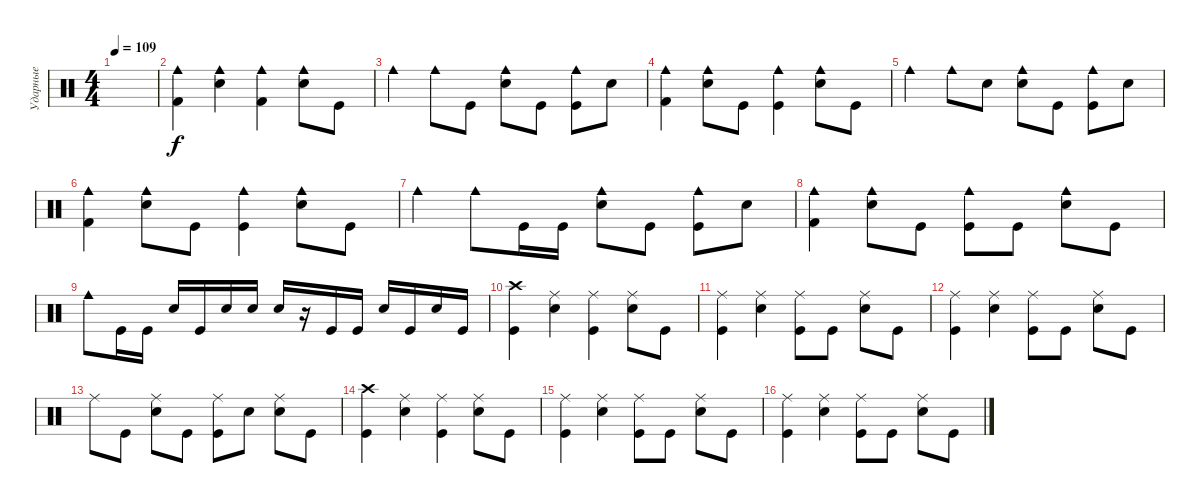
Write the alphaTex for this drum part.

\track ("Ударные" "Ударные") {instrument percussion}
\staff {score}
\articulation defaults
\ts (4 4)
\tempo 109
\clef neutral
\ks c
|
("Kick (hit) 2" "Cowbell medium (hit)").4 ("Snare (hit) 2" "Cowbell medium (hit)").4 ("Kick (hit) 2" "Cowbell medium (hit)").4 ("Snare (hit) 2" "Cowbell medium (hit)").8 "Kick (hit)".8 |
"Cowbell medium (hit)".4 "Cowbell medium (hit)".8 "Kick (hit)".8 ("Snare (hit) 2" "Cowbell medium (hit)").8 "Kick (hit)".8 ("Kick (hit)" "Cowbell medium (hit)").8 "Snare (hit) 2".8 |
("Kick (hit) 2" "Cowbell medium (hit)").4 ("Snare (hit) 2" "Cowbell medium (hit)").8 "Kick (hit)".8 ("Kick (hit)" "Cowbell medium (hit)").4 ("Snare (hit) 2" "Cowbell medium (hit)").8 "Kick (hit)".8 |
"Cowbell medium (hit)".4 "Cowbell medium (hit)".8 "Snare (hit) 2".8 ("Snare (hit) 2" "Cowbell medium (hit)").8 "Kick (hit)".8 ("Kick (hit)" "Cowbell medium (hit)").8 "Snare (hit) 2".8 |
("Kick (hit) 2" "Cowbell medium (hit)").4 ("Snare (hit) 2" "Cowbell medium (hit)").8 "Kick (hit)".8 ("Kick (hit)" "Cowbell medium (hit)").4 ("Snare (hit) 2" "Cowbell medium (hit)").8 "Kick (hit)".8 |
"Cowbell medium (hit)".4 "Cowbell medium (hit)".8 "Kick (hit)".16 "Kick (hit)".16 ("Snare (hit) 2" "Cowbell medium (hit)").8 "Kick (hit)".8 ("Kick (hit)" "Cowbell medium (hit)").8 "Snare (hit) 2".8 |
("Kick (hit) 2" "Cowbell medium (hit)").4 ("Snare (hit) 2" "Cowbell medium (hit)").8 "Kick (hit)".8 ("Kick (hit)" "Cowbell medium (hit)").8 "Kick (hit)".8 ("Snare (hit) 2" "Cowbell medium (hit)").8 "Kick (hit)".8 |
"Cowbell medium (hit)".8 "Kick (hit)".16 "Kick (hit)".16 "Snare (hit) 2".16 "Kick (hit)".16 "Snare (hit) 2".16 "Snare (hit) 2".16 "Snare (hit) 2".16 r.16 "Kick (hit)".16 "Kick (hit)".16 "Snare (hit) 2".16 "Kick (hit)".16 "Snare (hit) 2".16 "Kick (hit)".16 |
("Kick (hit)" "Crash high (hit)").4 ("Snare (hit) 2" "Ride (middle)").4 ("Kick (hit)" "Ride (middle)").4 ("Snare (hit) 2" "Ride (middle)").8 "Kick (hit)".8 |
("Kick (hit)" "Ride (middle)").4 ("Snare (hit) 2" "Ride (middle)").4 ("Kick (hit)" "Ride (middle)").8 "Kick (hit)".8 ("Snare (hit) 2" "Ride (middle)").8 "Kick (hit)".8 |
("Kick (hit)" "Ride (middle)").4 ("Snare (hit) 2" "Ride (middle)").4 ("Kick (hit)" "Ride (middle)").8 "Kick (hit)".8 ("Snare (hit) 2" "Ride (middle)").8 "Kick (hit)".8 |
"Ride (middle)".8 "Kick (hit)".8 ("Snare (hit) 2" "Ride (middle)").8 "Kick (hit)".8 ("Kick (hit)" "Ride (middle)").8 "Snare (hit) 2".8 ("Snare (hit) 2" "Ride (middle)").8 "Kick (hit)".8 |
("Kick (hit)" "Crash high (hit)").4 ("Snare (hit) 2" "Ride (middle)").4 ("Kick (hit)" "Ride (middle)").4 ("Snare (hit) 2" "Ride (middle)").8 "Kick (hit)".8 |
("Kick (hit)" "Ride (middle)").4 ("Snare (hit) 2" "Ride (middle)").4 ("Kick (hit)" "Ride (middle)").8 "Kick (hit)".8 ("Snare (hit) 2" "Ride (middle)").8 "Kick (hit)".8 |
("Kick (hit)" "Ride (middle)").4 ("Snare (hit) 2" "Ride (middle)").4 ("Kick (hit)" "Ride (middle)").8 "Kick (hit)".8 ("Snare (hit) 2" "Ride (middle)").8 "Kick (hit)".8
